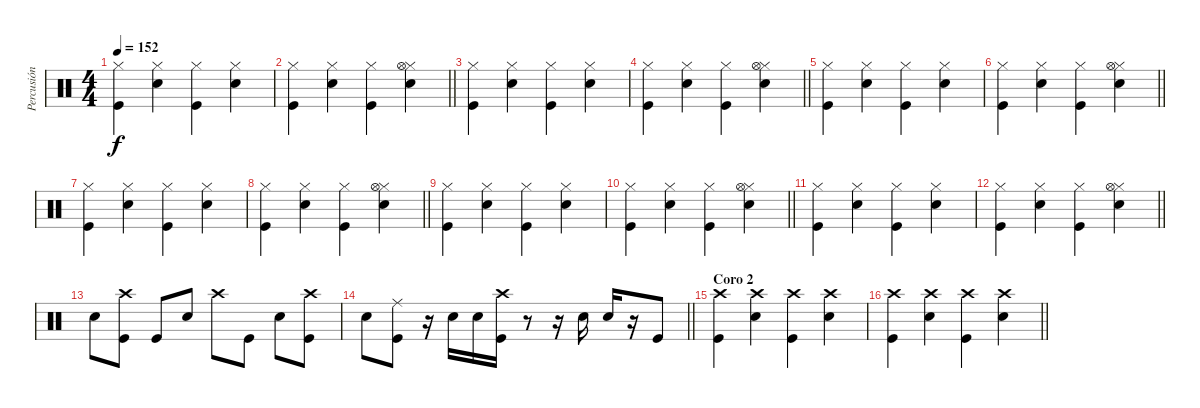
\track ("Percusión" "Percusión") {instrument percussion}
\staff {score}
\articulation defaults
\ts (4 4)
\tempo 152
\clef neutral
\ks c
("Hi-Hat (closed)" "Kick (hit)").4{dy f} ("Hi-Hat (closed)" "Snare (hit) 2").4 ("Hi-Hat (closed)" "Kick (hit)").4 ("Hi-Hat (closed)" "Snare (hit) 2").4 |
\barLineRight lightlight
("Hi-Hat (closed)" "Kick (hit)").4 ("Hi-Hat (closed)" "Snare (hit) 2").4 ("Hi-Hat (closed)" "Kick (hit)").4 ("Hi-Hat (closed)" "Snare (hit) 2" "Hi-Hat (open)").4 |
("Hi-Hat (closed)" "Kick (hit)").4 ("Hi-Hat (closed)" "Snare (hit) 2").4 ("Hi-Hat (closed)" "Kick (hit)").4 ("Hi-Hat (closed)" "Snare (hit) 2").4 |
\barLineRight lightlight
("Hi-Hat (closed)" "Kick (hit)").4 ("Hi-Hat (closed)" "Snare (hit) 2").4 ("Hi-Hat (closed)" "Kick (hit)").4 ("Hi-Hat (closed)" "Snare (hit) 2" "Hi-Hat (open)").4 |
("Hi-Hat (closed)" "Kick (hit)").4 ("Hi-Hat (closed)" "Snare (hit) 2").4 ("Hi-Hat (closed)" "Kick (hit)").4 ("Hi-Hat (closed)" "Snare (hit) 2").4 |
\barLineRight lightlight
("Hi-Hat (closed)" "Kick (hit)").4 ("Hi-Hat (closed)" "Snare (hit) 2").4 ("Hi-Hat (closed)" "Kick (hit)").4 ("Hi-Hat (closed)" "Snare (hit) 2" "Hi-Hat (open)").4 |
("Hi-Hat (closed)" "Kick (hit)").4 ("Hi-Hat (closed)" "Snare (hit) 2").4 ("Hi-Hat (closed)" "Kick (hit)").4 ("Hi-Hat (closed)" "Snare (hit) 2").4 |
\barLineRight lightlight
("Hi-Hat (closed)" "Kick (hit)").4 ("Hi-Hat (closed)" "Snare (hit) 2").4 ("Hi-Hat (closed)" "Kick (hit)").4 ("Hi-Hat (closed)" "Snare (hit) 2" "Hi-Hat (open)").4 |
("Hi-Hat (closed)" "Kick (hit)").4 ("Hi-Hat (closed)" "Snare (hit) 2").4 ("Hi-Hat (closed)" "Kick (hit)").4 ("Hi-Hat (closed)" "Snare (hit) 2").4 |
\barLineRight lightlight
("Hi-Hat (closed)" "Kick (hit)").4 ("Hi-Hat (closed)" "Snare (hit) 2").4 ("Hi-Hat (closed)" "Kick (hit)").4 ("Hi-Hat (closed)" "Snare (hit) 2" "Hi-Hat (open)").4 |
("Hi-Hat (closed)" "Kick (hit)").4 ("Hi-Hat (closed)" "Snare (hit) 2").4 ("Hi-Hat (closed)" "Kick (hit)").4 ("Hi-Hat (closed)" "Snare (hit) 2").4 |
\barLineRight lightlight
("Hi-Hat (closed)" "Kick (hit)").4 ("Hi-Hat (closed)" "Snare (hit) 2").4 ("Hi-Hat (closed)" "Kick (hit)").4 ("Hi-Hat (closed)" "Snare (hit) 2" "Hi-Hat (open)").4 |
"Snare (hit) 2".8 ("Kick (hit)" "Crash high (hit)").8 "Kick (hit)".8 "Snare (hit) 2".8 "Crash high (hit)".8 "Kick (hit)".8 "Snare (hit) 2".8 ("Kick (hit)" "Crash high (hit)").8 |
\barLineRight lightlight "Snare (hit) 2".8
("Kick (hit)" "Ride (middle)").8 r.16 "Snare (hit) 2".16 "Snare (hit) 2".16 ("Kick (hit)" "Crash high (hit)").16 r.8 r.16 "Snare (hit) 2".16 "Snare (hit) 2".16 r.16 "Kick (hit)".8 |
\section ("" "Coro 2")
("Kick (hit)" "Crash high (hit)").4 ("Crash high (hit)" "Snare (hit) 2").4 ("Crash high (hit)" "Kick (hit)").4 ("Crash high (hit)" "Snare (hit) 2").4 |
\barLineRight lightlight
("Crash high (hit)" "Kick (hit)").4 ("Crash high (hit)" "Snare (hit) 2").4 ("Crash high (hit)" "Kick (hit)").4 ("Crash high (hit)" "Snare (hit) 2").4
